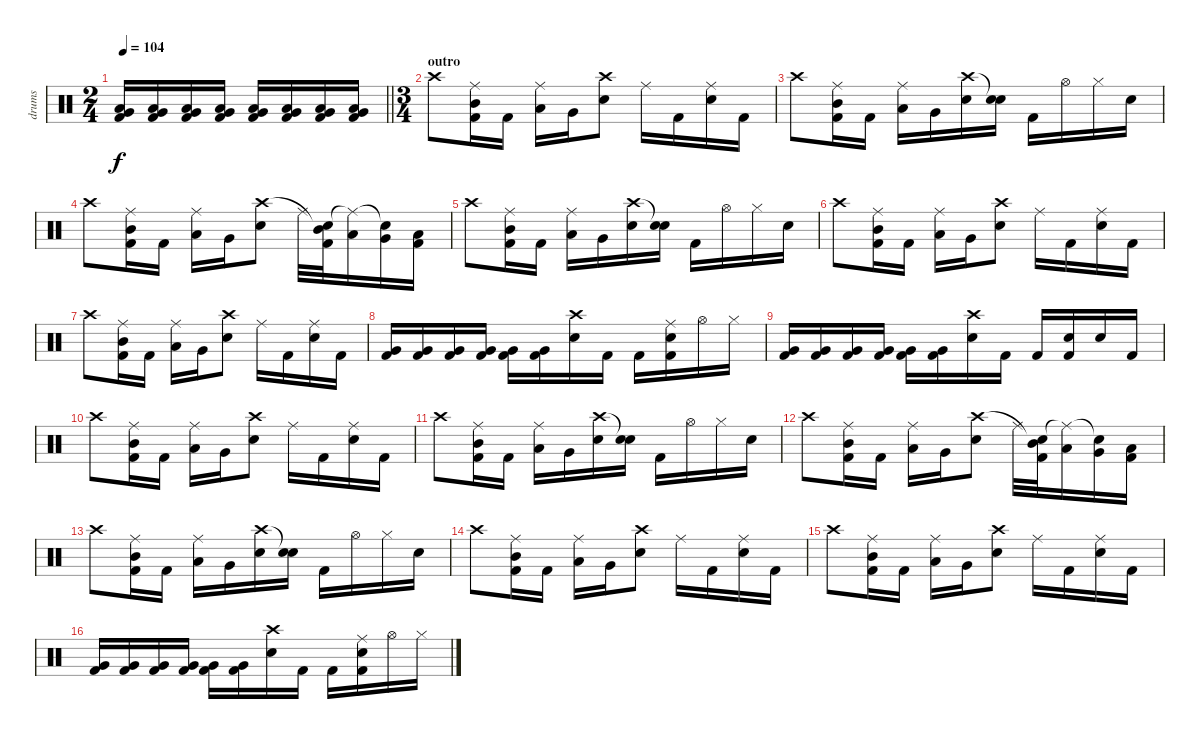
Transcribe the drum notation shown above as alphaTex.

\track ("drums" "drums") {instrument percussion}
\staff {score}
\articulation defaults
\ts (2 4)
\tempo 104
\clef neutral
\barLineRight lightlight
\ks c
("Low Floor Tom (hit)" "Very Low Tom (hit)" "Kick (hit) 2").16{dy f} ("Low Floor Tom (hit)" "Very Low Tom (hit)" "Kick (hit) 2").16 ("Low Floor Tom (hit)" "Very Low Tom (hit)" "Kick (hit) 2").16 ("Low Floor Tom (hit)" "Very Low Tom (hit)" "Kick (hit) 2").16 ("Low Floor Tom (hit)" "Very Low Tom (hit)" "Kick (hit) 2").16 ("Low Floor Tom (hit)" "Very Low Tom (hit)" "Kick (hit) 2").16 ("Low Floor Tom (hit)" "Very Low Tom (hit)" "Kick (hit) 2").16 ("Low Floor Tom (hit)" "Very Low Tom (hit)" "Kick (hit) 2").16 |
\ts (3 4)
\section ("" "outro")
"Crash high (hit)".8 ("Mid Tom (hit)" "Ride (middle)" "Kick (hit) 2").16 "Kick (hit) 2".16 ("Low Tom (hit)" "Ride (middle)").16 "Very Low Tom (hit)".16 ("Electric Snare (hit)" "Crash high (hit)").8 "Ride (middle)".16 "Kick (hit) 2".16 ("Electric Snare (hit)" "Ride (middle)").16 "Kick (hit) 2".16 |
"Crash high (hit)".8 ("Mid Tom (hit)" "Ride (middle)" "Kick (hit) 2").16 "Kick (hit) 2".16 ("Low Tom (hit)" "Ride (middle)").16 "Very Low Tom (hit)".16 ("Electric Snare (hit)" "Crash high (hit)").16 ("Electric Snare (hit)" "Snare (hit)"{t}).16 "Kick (hit) 2".16 "Hi-Hat (open)".16 "Hi-Hat (closed)".16 "Electric Snare (hit)".16 |
"Crash high (hit)".8 ("Mid Tom (hit)" "Ride (middle)" "Kick (hit) 2").16 "Kick (hit) 2".16 ("Low Tom (hit)" "Ride (middle)").16 "Very Low Tom (hit)".16 ("Electric Snare (hit)" "Crash high (hit)").8 "Ride (middle)".32 ("Mid Tom (hit)" "Snare (hit)"{t} "Kick (hit) 2").32 ("Low Tom (hit)" "Ride (middle)"{t}).16 ("Very Low Tom (hit)" "Snare (hit)"{t}).16 ("Low Floor Tom (hit)" "Kick (hit) 2").16 |
"Crash high (hit)".8 ("Mid Tom (hit)" "Ride (middle)" "Kick (hit) 2").16 "Kick (hit) 2".16 ("Low Tom (hit)" "Ride (middle)").16 "Very Low Tom (hit)".16 ("Electric Snare (hit)" "Crash high (hit)").16 ("Electric Snare (hit)" "Snare (hit)"{t}).16 "Kick (hit) 2".16 "Hi-Hat (open)".16 "Hi-Hat (closed)".16 "Electric Snare (hit)".16 |
"Crash high (hit)".8 ("Mid Tom (hit)" "Ride (middle)" "Kick (hit) 2").16 "Kick (hit) 2".16 ("Low Tom (hit)" "Ride (middle)").16 "Very Low Tom (hit)".16 ("Electric Snare (hit)" "Crash high (hit)").8 "Ride (middle)".16 "Kick (hit) 2".16 ("Electric Snare (hit)" "Ride (middle)").16 "Kick (hit) 2".16 |
"Crash high (hit)".8 ("Mid Tom (hit)" "Ride (middle)" "Kick (hit) 2").16 "Kick (hit) 2".16 ("Low Tom (hit)" "Ride (middle)").16 "Very Low Tom (hit)".16 ("Electric Snare (hit)" "Crash high (hit)").8 "Ride (middle)".16 "Kick (hit) 2".16 ("Electric Snare (hit)" "Ride (middle)").16 "Kick (hit) 2".16 |
("Very Low Tom (hit)" "Kick (hit) 2").16 ("Very Low Tom (hit)" "Kick (hit) 2").16 ("Very Low Tom (hit)" "Kick (hit) 2").16 ("Very Low Tom (hit)" "Kick (hit) 2").16 ("Very Low Tom (hit)" "Kick (hit) 2").16 ("Very Low Tom (hit)" "Kick (hit) 2").16 ("Electric Snare (hit)" "Crash high (hit)").16 "Kick (hit) 2".16 "Kick (hit) 2".16 ("Electric Snare (hit)" "Ride (middle)" "Kick (hit) 2").16 "Hi-Hat (open)".16 "Hi-Hat (closed)".16 |
("Very Low Tom (hit)" "Kick (hit) 2").16 ("Very Low Tom (hit)" "Kick (hit) 2").16 ("Very Low Tom (hit)" "Kick (hit) 2").16 ("Very Low Tom (hit)" "Kick (hit) 2").16 ("Very Low Tom (hit)" "Kick (hit) 2").16 ("Very Low Tom (hit)" "Kick (hit) 2").16 ("Electric Snare (hit)" "Crash high (hit)").16 "Kick (hit) 2".16 "Kick (hit) 2".16 ("Electric Snare (hit)" "Kick (hit) 2").16 "Electric Snare (hit)".16 "Kick (hit) 2".16 |
"Crash high (hit)".8 ("Mid Tom (hit)" "Ride (middle)" "Kick (hit) 2").16 "Kick (hit) 2".16 ("Low Tom (hit)" "Ride (middle)").16 "Very Low Tom (hit)".16 ("Electric Snare (hit)" "Crash high (hit)").8 "Ride (middle)".16 "Kick (hit) 2".16 ("Electric Snare (hit)" "Ride (middle)").16 "Kick (hit) 2".16 |
"Crash high (hit)".8 ("Mid Tom (hit)" "Ride (middle)" "Kick (hit) 2").16 "Kick (hit) 2".16 ("Low Tom (hit)" "Ride (middle)").16 "Very Low Tom (hit)".16 ("Electric Snare (hit)" "Crash high (hit)").16 ("Electric Snare (hit)" "Snare (hit)"{t}).16 "Kick (hit) 2".16 "Hi-Hat (open)".16 "Hi-Hat (closed)".16 "Electric Snare (hit)".16 |
"Crash high (hit)".8 ("Mid Tom (hit)" "Ride (middle)" "Kick (hit) 2").16 "Kick (hit) 2".16 ("Low Tom (hit)" "Ride (middle)").16 "Very Low Tom (hit)".16 ("Electric Snare (hit)" "Crash high (hit)").8 "Ride (middle)".32 ("Mid Tom (hit)" "Snare (hit)"{t} "Kick (hit) 2").32 ("Low Tom (hit)" "Ride (middle)"{t}).16 ("Very Low Tom (hit)" "Snare (hit)"{t}).16 ("Low Floor Tom (hit)" "Kick (hit) 2").16 |
"Crash high (hit)".8 ("Mid Tom (hit)" "Ride (middle)" "Kick (hit) 2").16 "Kick (hit) 2".16 ("Low Tom (hit)" "Ride (middle)").16 "Very Low Tom (hit)".16 ("Electric Snare (hit)" "Crash high (hit)").16 ("Electric Snare (hit)" "Snare (hit)"{t}).16 "Kick (hit) 2".16 "Hi-Hat (open)".16 "Hi-Hat (closed)".16 "Electric Snare (hit)".16 |
"Crash high (hit)".8 ("Mid Tom (hit)" "Ride (middle)" "Kick (hit) 2").16 "Kick (hit) 2".16 ("Low Tom (hit)" "Ride (middle)").16 "Very Low Tom (hit)".16 ("Electric Snare (hit)" "Crash high (hit)").8 "Ride (middle)".16 "Kick (hit) 2".16 ("Electric Snare (hit)" "Ride (middle)").16 "Kick (hit) 2".16 |
"Crash high (hit)".8 ("Mid Tom (hit)" "Ride (middle)" "Kick (hit) 2").16 "Kick (hit) 2".16 ("Low Tom (hit)" "Ride (middle)").16 "Very Low Tom (hit)".16 ("Electric Snare (hit)" "Crash high (hit)").8 "Ride (middle)".16 "Kick (hit) 2".16 ("Electric Snare (hit)" "Ride (middle)").16 "Kick (hit) 2".16 |
("Very Low Tom (hit)" "Kick (hit) 2").16 ("Very Low Tom (hit)" "Kick (hit) 2").16 ("Very Low Tom (hit)" "Kick (hit) 2").16 ("Very Low Tom (hit)" "Kick (hit) 2").16 ("Very Low Tom (hit)" "Kick (hit) 2").16 ("Very Low Tom (hit)" "Kick (hit) 2").16 ("Electric Snare (hit)" "Crash high (hit)").16 "Kick (hit) 2".16 "Kick (hit) 2".16 ("Electric Snare (hit)" "Ride (middle)" "Kick (hit) 2").16 "Hi-Hat (open)".16 "Hi-Hat (closed)".16
